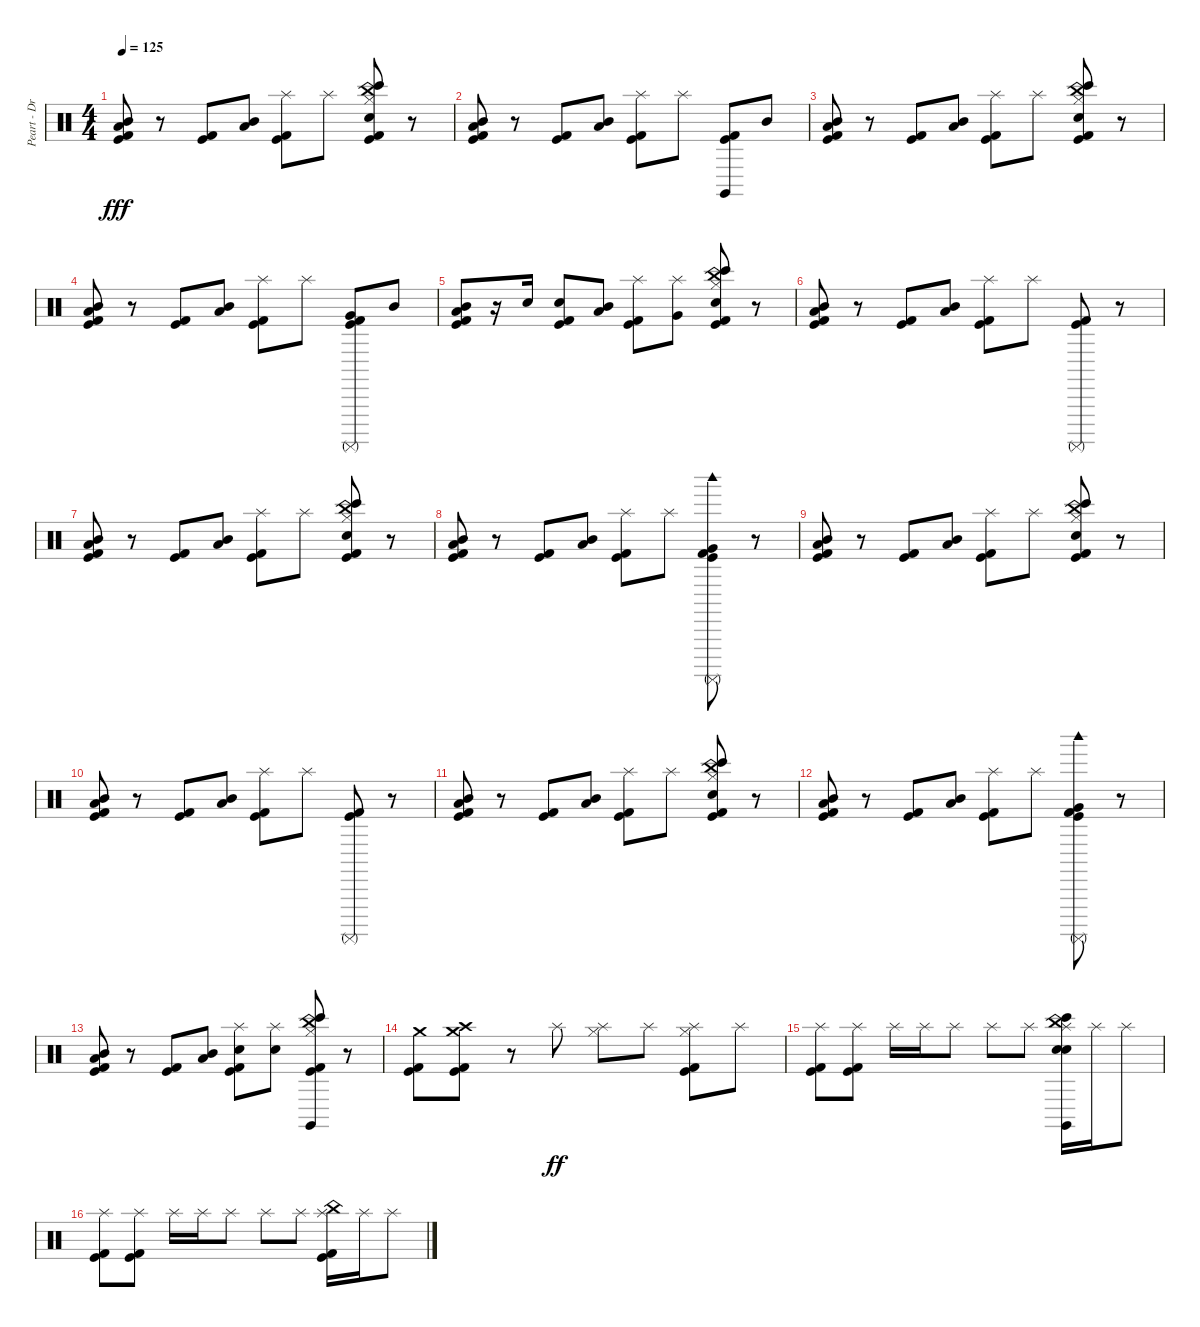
\track ("Peart - Drums" "Peart - Dr") {instrument percussion}
\staff {score}
\articulation defaults
\ts (4 4)
\tempo 125
\clef neutral
\ks c
("Kick (hit) 2" "Low Tom (hit)" "Kick (hit)" "Mid Tom (hit)").8{dy fff} r.8 ("Kick (hit) 2" "Kick (hit)").8 ("Low Tom (hit)" "Mid Tom (hit)").8 ("Kick (hit) 2" "Splash (hit)" "Kick (hit)").8 "Splash (hit)".8 ("Kick (hit) 2" "Bongo High (hit)" "Hi-Hat (closed)" "Kick (hit)" "China (hit)" "Electric Snare (hit)").8 r.8 |
("Kick (hit) 2" "Low Tom (hit)" "Kick (hit)" "Mid Tom (hit)").8 r.8 ("Kick (hit) 2" "Kick (hit)").8 ("Low Tom (hit)" "Mid Tom (hit)").8 ("Kick (hit) 2" "Splash (hit)" "Kick (hit)").8 "Splash (hit)".8 ("Kick (hit) 2" "Kick (hit)" "Claves (hit)").8 "Mid Tom (hit)".8 |
("Kick (hit) 2" "Low Tom (hit)" "Kick (hit)" "Mid Tom (hit)").8 r.8 ("Kick (hit) 2" "Kick (hit)").8 ("Low Tom (hit)" "Mid Tom (hit)").8 ("Kick (hit) 2" "Splash (hit)" "Kick (hit)").8 "Splash (hit)".8 ("Kick (hit) 2" "Kick (hit)" "Bongo High (hit)" "Hi-Hat (closed)" "Hand Clap (hit)" "China (hit)").8 r.8 |
("Kick (hit) 2" "Low Tom (hit)" "Kick (hit)" "Mid Tom (hit)").8 r.8 ("Kick (hit) 2" "Kick (hit)").8 ("Low Tom (hit)" "Mid Tom (hit)").8 ("Kick (hit) 2" "Splash (hit)" "Kick (hit)").8 "Splash (hit)".8 ("Kick (hit) 2" "Very Low Tom (hit)" "Kick (hit)" "Surdo (mute)").8 "Mid Tom (hit)".8 |
("Kick (hit) 2" "Low Tom (hit)" "Kick (hit)" "Mid Tom (hit)").8 r.16 "Electric Snare (hit)".16 ("Kick (hit) 2" "Kick (hit)" "Electric Snare (hit)").8 ("Low Tom (hit)" "Mid Tom (hit)").8 ("Splash (hit)" "Kick (hit) 2" "Kick (hit)").8 ("Splash (hit)" "Very Low Tom (hit)").8 ("Kick (hit) 2" "Bongo High (hit)" "Hi-Hat (closed)" "Kick (hit)" "China (hit)" "Electric Snare (hit)").8 r.8 |
("Kick (hit)" "Low Tom (hit)" "Kick (hit) 2" "Mid Tom (hit)").8 r.8 ("Kick (hit) 2" "Kick (hit)").8 ("Low Tom (hit)" "Mid Tom (hit)").8 ("Kick (hit) 2" "Splash (hit)" "Kick (hit)").8 "Splash (hit)".8 ("Kick (hit) 2" "Kick (hit)" "Surdo (mute)").8 r.8 |
("Kick (hit) 2" "Low Tom (hit)" "Kick (hit)" "Mid Tom (hit)").8 r.8 ("Kick (hit) 2" "Kick (hit)").8 ("Low Tom (hit)" "Mid Tom (hit)").8 ("Kick (hit) 2" "Splash (hit)" "Kick (hit)").8 "Splash (hit)".8 ("Kick (hit) 2" "Kick (hit)" "Bongo High (hit)" "Hi-Hat (closed)" "Hand Clap (hit)" "China (hit)").8 r.8 |
("Kick (hit) 2" "Low Tom (hit)" "Kick (hit)" "Mid Tom (hit)").8 r.8 ("Kick (hit) 2" "Kick (hit)").8 ("Low Tom (hit)" "Mid Tom (hit)").8 ("Kick (hit) 2" "Splash (hit)" "Kick (hit)").8 "Splash (hit)".8 ("Kick (hit) 2" "Very Low Tom (hit)" "Kick (hit)" "Surdo (mute)" "Woodblock high (hit)").8 r.8 |
("Kick (hit) 2" "Low Tom (hit)" "Kick (hit)" "Mid Tom (hit)").8 r.8 ("Kick (hit) 2" "Kick (hit)").8 ("Low Tom (hit)" "Mid Tom (hit)").8 ("Kick (hit) 2" "Splash (hit)" "Kick (hit)").8 "Splash (hit)".8 ("Kick (hit) 2" "Bongo High (hit)" "Hi-Hat (closed)" "Kick (hit)" "China (hit)" "Electric Snare (hit)").8 r.8 |
("Kick (hit) 2" "Low Tom (hit)" "Kick (hit)" "Mid Tom (hit)").8 r.8 ("Kick (hit) 2" "Kick (hit)").8 ("Low Tom (hit)" "Mid Tom (hit)").8 ("Kick (hit) 2" "Splash (hit)" "Kick (hit)").8 "Splash (hit)".8 ("Kick (hit) 2" "Kick (hit)" "Surdo (mute)").8 r.8 |
("Kick (hit) 2" "Low Tom (hit)" "Kick (hit)" "Mid Tom (hit)").8 r.8 ("Kick (hit) 2" "Kick (hit)").8 ("Low Tom (hit)" "Mid Tom (hit)").8 ("Kick (hit) 2" "Splash (hit)" "Kick (hit)").8 "Splash (hit)".8 ("Kick (hit) 2" "Kick (hit)" "Bongo High (hit)" "Hi-Hat (closed)" "Hand Clap (hit)" "China (hit)").8 r.8 |
("Kick (hit) 2" "Low Tom (hit)" "Kick (hit)" "Mid Tom (hit)").8 r.8 ("Kick (hit) 2" "Kick (hit)").8 ("Low Tom (hit)" "Mid Tom (hit)").8 ("Kick (hit) 2" "Splash (hit)" "Kick (hit)").8 "Splash (hit)".8 ("Kick (hit) 2" "Very Low Tom (hit)" "Kick (hit)" "Surdo (mute)" "Woodblock high (hit)").8 r.8 |
("Kick (hit) 2" "Low Tom (hit)" "Kick (hit)" "Mid Tom (hit)").8 r.8 ("Kick (hit) 2" "Kick (hit)").8 ("Low Tom (hit)" "Mid Tom (hit)").8 ("Kick (hit) 2" "Splash (hit)" "Kick (hit)" "Electric Snare (hit)").8 ("Splash (hit)" "Snare (hit) 2").8 ("Kick (hit) 2" "Bongo High (hit)" "Hi-Hat (closed)" "Kick (hit)" "China (hit)" "Claves (hit)").8 r.8 |
("Kick (hit)" "Kick (hit) 2" "Crash medium (hit)").8 ("Kick (hit)" "Kick (hit) 2" "Crash medium (hit)" "Crash high (hit)").8 r.8 "Splash (hit)".8{dy ff} ("Hi-Hat (closed)" "Splash (hit)").8 "Splash (hit)".8 ("Kick (hit) 2" "Kick (hit)" "Hi-Hat (closed)" "Splash (hit)").8 "Splash (hit)".8 |
("Kick (hit) 2" "Kick (hit)" "Splash (hit)").8 ("Kick (hit) 2" "Kick (hit)" "Splash (hit)").8 "Splash (hit)".16 "Splash (hit)".16 "Splash (hit)".8 "Splash (hit)".8 "Splash (hit)".8 ("Bongo High (hit)" "Electric Snare (hit)" "China (hit)" "Claves (hit)" "Snare (hit) 2" "Splash (hit)").16 "Splash (hit)".16 "Splash (hit)".8 |
("Kick (hit) 2" "Kick (hit)" "Splash (hit)").8 ("Kick (hit) 2" "Kick (hit)" "Splash (hit)").8 "Splash (hit)".16 "Splash (hit)".16 "Splash (hit)".8 "Splash (hit)".8 "Splash (hit)".8 ("Kick (hit)" "Kick (hit) 2" "China (hit)" "Splash (hit)").16 "Splash (hit)".16 "Splash (hit)".8
